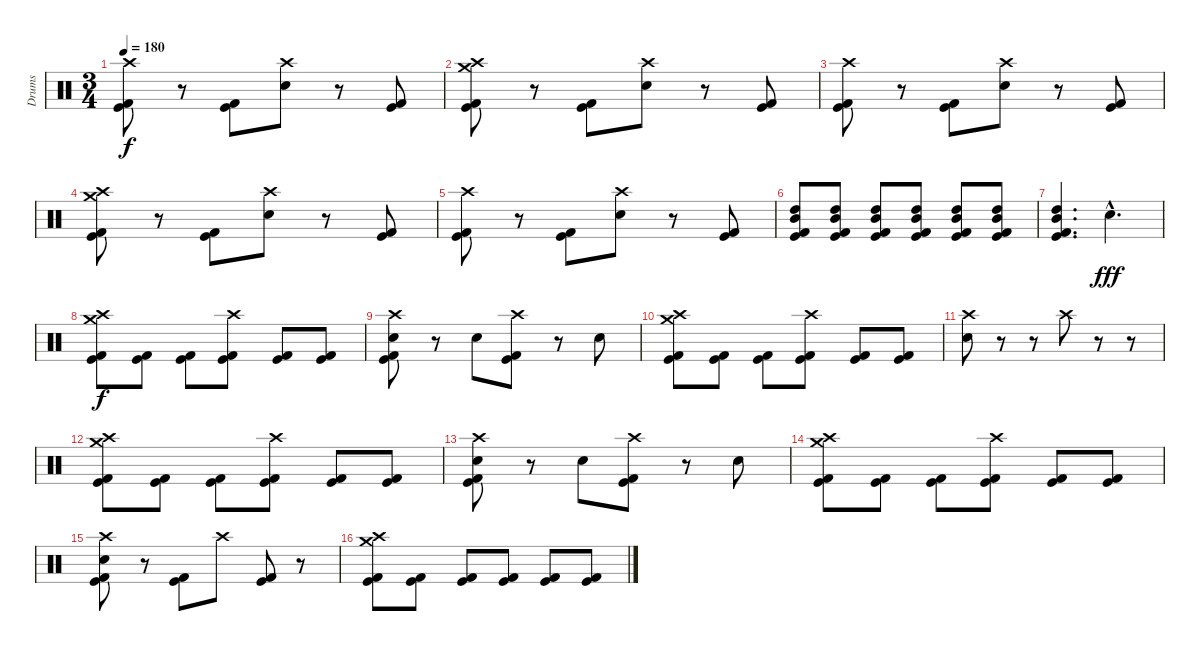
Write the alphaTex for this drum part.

\track ("Drums" "Drums") {instrument percussion}
\staff {score}
\articulation defaults
\ts (3 4)
\tempo 180
\clef neutral
\ks c
("Crash high (hit)" "Kick (hit)" "Kick (hit) 2").8{dy f} r.8 ("Kick (hit)" "Kick (hit) 2").8 ("Crash high (hit)" "Snare (hit) 2").8 r.8 ("Kick (hit)" "Kick (hit) 2").8 |
("Crash medium (hit)" "Crash high (hit)" "Kick (hit)" "Kick (hit) 2").8 r.8 ("Kick (hit)" "Kick (hit) 2").8 ("Crash high (hit)" "Snare (hit) 2").8 r.8 ("Kick (hit)" "Kick (hit) 2").8 |
("Crash high (hit)" "Kick (hit)" "Kick (hit) 2").8 r.8 ("Kick (hit)" "Kick (hit) 2").8 ("Crash high (hit)" "Snare (hit) 2").8 r.8 ("Kick (hit)" "Kick (hit) 2").8 |
("Crash medium (hit)" "Crash high (hit)" "Kick (hit)" "Kick (hit) 2").8 r.8 ("Kick (hit)" "Kick (hit) 2").8 ("Crash high (hit)" "Snare (hit) 2").8 r.8 ("Kick (hit)" "Kick (hit) 2").8 |
("Crash high (hit)" "Kick (hit)" "Kick (hit) 2").8 r.8 ("Kick (hit)" "Kick (hit) 2").8 ("Crash high (hit)" "Snare (hit) 2").8 r.8 ("Kick (hit)" "Kick (hit) 2").8 |
("High Tom (hit)" "Mid Tom (hit)" "Kick (hit)" "Kick (hit) 2").8 ("High Tom (hit)" "Mid Tom (hit)" "Kick (hit)" "Kick (hit) 2").8 ("High Tom (hit)" "Mid Tom (hit)" "Kick (hit)" "Kick (hit) 2").8 ("High Tom (hit)" "Mid Tom (hit)" "Kick (hit)" "Kick (hit) 2").8 ("High Tom (hit)" "Mid Tom (hit)" "Kick (hit)" "Kick (hit) 2").8 ("High Tom (hit)" "Mid Tom (hit)" "Kick (hit)" "Kick (hit) 2").8 |
("High Tom (hit)" "Mid Tom (hit)" "Kick (hit)" "Kick (hit) 2").4{d} "Snare (hit) 2"{hac}.4{d dy fff} |
("Crash medium (hit)" "Crash high (hit)" "Kick (hit)" "Kick (hit) 2").8{dy f} ("Kick (hit)" "Kick (hit) 2").8 ("Kick (hit)" "Kick (hit) 2").8 ("Crash high (hit)" "Kick (hit)" "Kick (hit) 2").8 ("Kick (hit)" "Kick (hit) 2").8 ("Kick (hit)" "Kick (hit) 2").8 |
("Crash high (hit)" "Snare (hit) 2" "Kick (hit)" "Kick (hit) 2").8 r.8 "Snare (hit) 2".8 ("Crash high (hit)" "Kick (hit)" "Kick (hit) 2").8 r.8 "Snare (hit) 2".8 |
("Crash medium (hit)" "Crash high (hit)" "Kick (hit)" "Kick (hit) 2").8 ("Kick (hit)" "Kick (hit) 2").8 ("Kick (hit)" "Kick (hit) 2").8 ("Crash high (hit)" "Kick (hit)" "Kick (hit) 2").8 ("Kick (hit)" "Kick (hit) 2").8 ("Kick (hit)" "Kick (hit) 2").8 |
("Crash high (hit)" "Snare (hit) 2").8 r.8 r.8 "Crash high (hit)".8 r.8 r.8 |
("Crash medium (hit)" "Crash high (hit)" "Kick (hit)" "Kick (hit) 2").8 ("Kick (hit)" "Kick (hit) 2").8 ("Kick (hit)" "Kick (hit) 2").8 ("Crash high (hit)" "Kick (hit)" "Kick (hit) 2").8 ("Kick (hit)" "Kick (hit) 2").8 ("Kick (hit)" "Kick (hit) 2").8 |
("Crash high (hit)" "Snare (hit) 2" "Kick (hit)" "Kick (hit) 2").8 r.8 "Snare (hit) 2".8 ("Crash high (hit)" "Kick (hit)" "Kick (hit) 2").8 r.8 "Snare (hit) 2".8 |
("Crash medium (hit)" "Crash high (hit)" "Kick (hit)" "Kick (hit) 2").8 ("Kick (hit)" "Kick (hit) 2").8 ("Kick (hit)" "Kick (hit) 2").8 ("Crash high (hit)" "Kick (hit)" "Kick (hit) 2").8 ("Kick (hit)" "Kick (hit) 2").8 ("Kick (hit)" "Kick (hit) 2").8 |
("Crash high (hit)" "Snare (hit) 2" "Kick (hit)" "Kick (hit) 2").8 r.8 ("Kick (hit)" "Kick (hit) 2").8 "Crash high (hit)".8 ("Kick (hit)" "Kick (hit) 2").8 r.8 |
("Crash medium (hit)" "Crash high (hit)" "Kick (hit)" "Kick (hit) 2").8 ("Kick (hit)" "Kick (hit) 2").8 ("Kick (hit)" "Kick (hit) 2").8 ("Kick (hit)" "Kick (hit) 2").8 ("Kick (hit)" "Kick (hit) 2").8 ("Kick (hit)" "Kick (hit) 2").8
